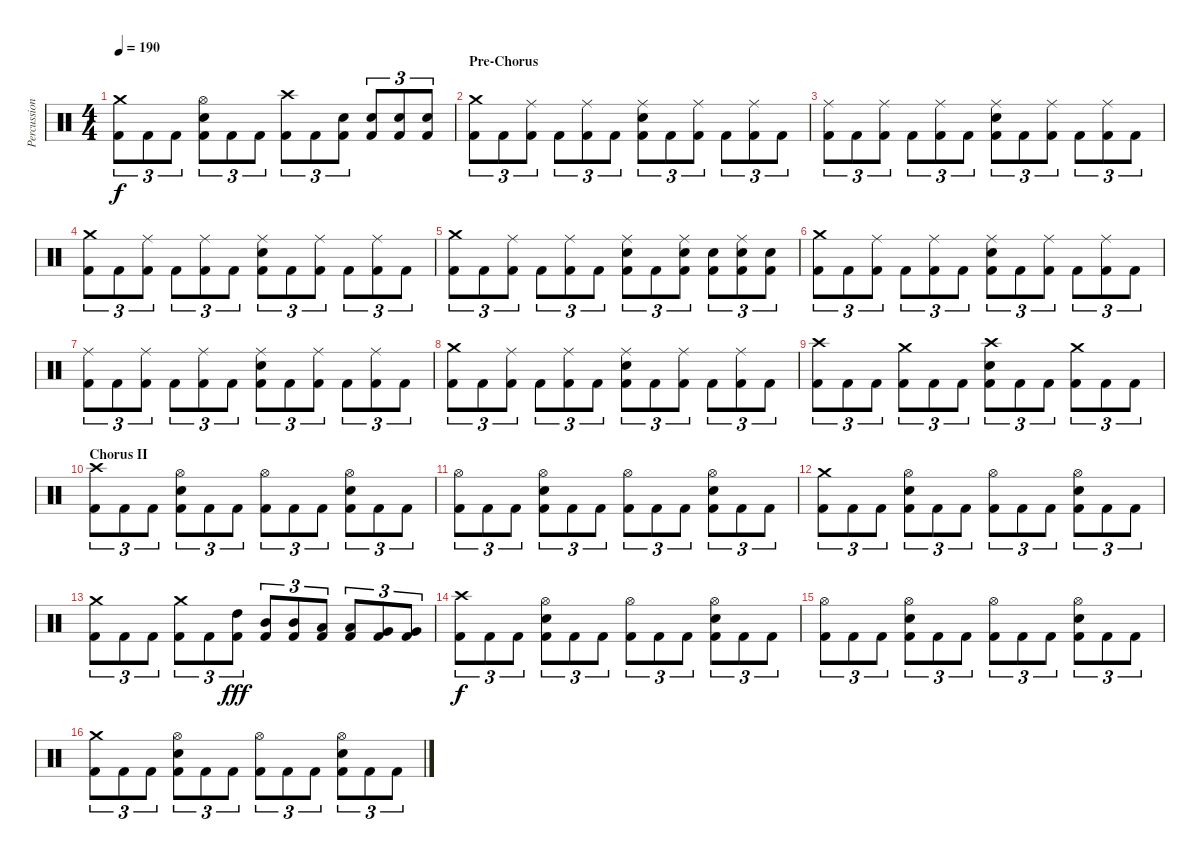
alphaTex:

\track ("Percussion" "Percussion") {instrument percussion}
\staff {score}
\articulation defaults
\ts (4 4)
\tempo 190
\clef neutral
\ks c
("Kick (hit) 2" "Crash medium (hit)").8{tu (3 2) dy f} "Kick (hit) 2".8{tu (3 2)} "Kick (hit) 2".8{tu (3 2)} ("Kick (hit) 2" "Electric Snare (hit)" "Hi-Hat (open)").8{tu (3 2)} "Kick (hit) 2".8{tu (3 2)} "Kick (hit) 2".8{tu (3 2)} ("Kick (hit) 2" "Crash high (hit)").8{tu (3 2)} "Kick (hit) 2".8{tu (3 2)} ("Kick (hit) 2" "Electric Snare (hit)").8{tu (3 2)} ("Kick (hit) 2" "Electric Snare (hit)").8{tu (3 2)} ("Kick (hit) 2" "Electric Snare (hit)").8{tu (3 2)} ("Kick (hit) 2" "Electric Snare (hit)").8{tu (3 2)} |
\section ("" "Pre-Chorus")
("Kick (hit) 2" "Crash medium (hit)").8{tu (3 2)} "Kick (hit) 2".8{tu (3 2)} ("Kick (hit) 2" "Ride (middle)").8{tu (3 2)} "Kick (hit) 2".8{tu (3 2)} ("Kick (hit) 2" "Ride (middle)").8{tu (3 2)} "Kick (hit) 2".8{tu (3 2)} ("Kick (hit) 2" "Electric Snare (hit)" "Ride (middle)").8{tu (3 2)} "Kick (hit) 2".8{tu (3 2)} ("Kick (hit) 2" "Ride (middle)").8{tu (3 2)} "Kick (hit) 2".8{tu (3 2)} ("Kick (hit) 2" "Ride (middle)").8{tu (3 2)} "Kick (hit) 2".8{tu (3 2)} |
("Kick (hit) 2" "Ride (middle)").8{tu (3 2)} "Kick (hit) 2".8{tu (3 2)} ("Kick (hit) 2" "Ride (middle)").8{tu (3 2)} "Kick (hit) 2".8{tu (3 2)} ("Kick (hit) 2" "Ride (middle)").8{tu (3 2)} "Kick (hit) 2".8{tu (3 2)} ("Kick (hit) 2" "Electric Snare (hit)" "Ride (middle)").8{tu (3 2)} "Kick (hit) 2".8{tu (3 2)} ("Kick (hit) 2" "Ride (middle)").8{tu (3 2)} "Kick (hit) 2".8{tu (3 2)} ("Kick (hit) 2" "Ride (middle)").8{tu (3 2)} "Kick (hit) 2".8{tu (3 2)} |
("Kick (hit) 2" "Crash medium (hit)").8{tu (3 2)} "Kick (hit) 2".8{tu (3 2)} ("Kick (hit) 2" "Ride (middle)").8{tu (3 2)} "Kick (hit) 2".8{tu (3 2)} ("Kick (hit) 2" "Ride (middle)").8{tu (3 2)} "Kick (hit) 2".8{tu (3 2)} ("Kick (hit) 2" "Electric Snare (hit)" "Ride (middle)").8{tu (3 2)} "Kick (hit) 2".8{tu (3 2)} ("Kick (hit) 2" "Ride (middle)").8{tu (3 2)} "Kick (hit) 2".8{tu (3 2)} ("Kick (hit) 2" "Ride (middle)").8{tu (3 2)} "Kick (hit) 2".8{tu (3 2)} |
("Kick (hit) 2" "Crash medium (hit)").8{tu (3 2)} "Kick (hit) 2".8{tu (3 2)} ("Kick (hit) 2" "Ride (middle)").8{tu (3 2)} "Kick (hit) 2".8{tu (3 2)} ("Kick (hit) 2" "Ride (middle)").8{tu (3 2)} "Kick (hit) 2".8{tu (3 2)} ("Kick (hit) 2" "Electric Snare (hit)" "Ride (middle)").8{tu (3 2)} "Kick (hit) 2".8{tu (3 2)} ("Kick (hit) 2" "Electric Snare (hit)" "Ride (middle)").8{tu (3 2)} ("Kick (hit) 2" "Electric Snare (hit)").8{tu (3 2)} ("Kick (hit) 2" "Electric Snare (hit)" "Ride (middle)").8{tu (3 2)} ("Kick (hit) 2" "Electric Snare (hit)").8{tu (3 2)} |
("Kick (hit) 2" "Crash medium (hit)").8{tu (3 2)} "Kick (hit) 2".8{tu (3 2)} ("Kick (hit) 2" "Ride (middle)").8{tu (3 2)} "Kick (hit) 2".8{tu (3 2)} ("Kick (hit) 2" "Ride (middle)").8{tu (3 2)} "Kick (hit) 2".8{tu (3 2)} ("Kick (hit) 2" "Electric Snare (hit)" "Ride (middle)").8{tu (3 2)} "Kick (hit) 2".8{tu (3 2)} ("Kick (hit) 2" "Ride (middle)").8{tu (3 2)} "Kick (hit) 2".8{tu (3 2)} ("Kick (hit) 2" "Ride (middle)").8{tu (3 2)} "Kick (hit) 2".8{tu (3 2)} |
("Kick (hit) 2" "Ride (middle)").8{tu (3 2)} "Kick (hit) 2".8{tu (3 2)} ("Kick (hit) 2" "Ride (middle)").8{tu (3 2)} "Kick (hit) 2".8{tu (3 2)} ("Kick (hit) 2" "Ride (middle)").8{tu (3 2)} "Kick (hit) 2".8{tu (3 2)} ("Kick (hit) 2" "Electric Snare (hit)" "Ride (middle)").8{tu (3 2)} "Kick (hit) 2".8{tu (3 2)} ("Kick (hit) 2" "Ride (middle)").8{tu (3 2)} "Kick (hit) 2".8{tu (3 2)} ("Kick (hit) 2" "Ride (middle)").8{tu (3 2)} "Kick (hit) 2".8{tu (3 2)} |
("Kick (hit) 2" "Crash medium (hit)").8{tu (3 2)} "Kick (hit) 2".8{tu (3 2)} ("Kick (hit) 2" "Ride (middle)").8{tu (3 2)} "Kick (hit) 2".8{tu (3 2)} ("Kick (hit) 2" "Ride (middle)").8{tu (3 2)} "Kick (hit) 2".8{tu (3 2)} ("Kick (hit) 2" "Electric Snare (hit)" "Ride (middle)").8{tu (3 2)} "Kick (hit) 2".8{tu (3 2)} ("Kick (hit) 2" "Ride (middle)").8{tu (3 2)} "Kick (hit) 2".8{tu (3 2)} ("Kick (hit) 2" "Ride (middle)").8{tu (3 2)} "Kick (hit) 2".8{tu (3 2)} |
("Kick (hit) 2" "Crash high (hit)").8{tu (3 2)} "Kick (hit) 2".8{tu (3 2)} "Kick (hit) 2".8{tu (3 2)} ("Kick (hit) 2" "Crash medium (hit)").8{tu (3 2)} "Kick (hit) 2".8{tu (3 2)} "Kick (hit) 2".8{tu (3 2)} ("Kick (hit) 2" "Electric Snare (hit)" "Crash high (hit)").8{tu (3 2)} "Kick (hit) 2".8{tu (3 2)} "Kick (hit) 2".8{tu (3 2)} ("Kick (hit) 2" "Crash medium (hit)").8{tu (3 2)} "Kick (hit) 2".8{tu (3 2)} "Kick (hit) 2".8{tu (3 2)} |
\section ("" "Chorus II")
("Kick (hit) 2" "Crash high (hit)").8{tu (3 2)} "Kick (hit) 2".8{tu (3 2)} "Kick (hit) 2".8{tu (3 2)} ("Kick (hit) 2" "Electric Snare (hit)" "Hi-Hat (open)").8{tu (3 2)} "Kick (hit) 2".8{tu (3 2)} "Kick (hit) 2".8{tu (3 2)} ("Kick (hit) 2" "Hi-Hat (open)").8{tu (3 2)} "Kick (hit) 2".8{tu (3 2)} "Kick (hit) 2".8{tu (3 2)} ("Kick (hit) 2" "Electric Snare (hit)" "Hi-Hat (open)").8{tu (3 2)} "Kick (hit) 2".8{tu (3 2)} "Kick (hit) 2".8{tu (3 2)} |
("Kick (hit) 2" "Hi-Hat (open)").8{tu (3 2)} "Kick (hit) 2".8{tu (3 2)} "Kick (hit) 2".8{tu (3 2)} ("Kick (hit) 2" "Electric Snare (hit)" "Hi-Hat (open)").8{tu (3 2)} "Kick (hit) 2".8{tu (3 2)} "Kick (hit) 2".8{tu (3 2)} ("Kick (hit) 2" "Hi-Hat (open)").8{tu (3 2)} "Kick (hit) 2".8{tu (3 2)} "Kick (hit) 2".8{tu (3 2)} ("Kick (hit) 2" "Electric Snare (hit)" "Hi-Hat (open)").8{tu (3 2)} "Kick (hit) 2".8{tu (3 2)} "Kick (hit) 2".8{tu (3 2)} |
("Kick (hit) 2" "Crash medium (hit)").8{tu (3 2)} "Kick (hit) 2".8{tu (3 2)} "Kick (hit) 2".8{tu (3 2)} ("Kick (hit) 2" "Electric Snare (hit)" "Hi-Hat (open)").8{tu (3 2)} "Kick (hit) 2".8{tu (3 2)} "Kick (hit) 2".8{tu (3 2)} ("Kick (hit) 2" "Hi-Hat (open)").8{tu (3 2)} "Kick (hit) 2".8{tu (3 2)} "Kick (hit) 2".8{tu (3 2)} ("Kick (hit) 2" "Electric Snare (hit)" "Hi-Hat (open)").8{tu (3 2)} "Kick (hit) 2".8{tu (3 2)} "Kick (hit) 2".8{tu (3 2)} |
("Kick (hit) 2" "Crash medium (hit)").8{tu (3 2)} "Kick (hit) 2".8{tu (3 2)} "Kick (hit) 2".8{tu (3 2)} ("Kick (hit) 2" "Crash medium (hit)").8{tu (3 2)} "Kick (hit) 2".8{tu (3 2)} ("Kick (hit) 2" "High Tom (hit)").8{tu (3 2) dy fff} ("Kick (hit) 2" "Mid Tom (hit)").8{tu (3 2)} ("Kick (hit) 2" "Mid Tom (hit)").8{tu (3 2)} ("Kick (hit) 2" "Low Tom (hit)").8{tu (3 2)} ("Kick (hit) 2" "Low Tom (hit)").8{tu (3 2)} ("Kick (hit) 2" "Very Low Tom (hit)").8{tu (3 2)} ("Kick (hit) 2" "Very Low Tom (hit)").8{tu (3 2)} |
("Kick (hit) 2" "Crash high (hit)").8{tu (3 2) dy f} "Kick (hit) 2".8{tu (3 2)} "Kick (hit) 2".8{tu (3 2)} ("Kick (hit) 2" "Electric Snare (hit)" "Hi-Hat (open)").8{tu (3 2)} "Kick (hit) 2".8{tu (3 2)} "Kick (hit) 2".8{tu (3 2)} ("Kick (hit) 2" "Hi-Hat (open)").8{tu (3 2)} "Kick (hit) 2".8{tu (3 2)} "Kick (hit) 2".8{tu (3 2)} ("Kick (hit) 2" "Electric Snare (hit)" "Hi-Hat (open)").8{tu (3 2)} "Kick (hit) 2".8{tu (3 2)} "Kick (hit) 2".8{tu (3 2)} |
("Kick (hit) 2" "Hi-Hat (open)").8{tu (3 2)} "Kick (hit) 2".8{tu (3 2)} "Kick (hit) 2".8{tu (3 2)} ("Kick (hit) 2" "Electric Snare (hit)" "Hi-Hat (open)").8{tu (3 2)} "Kick (hit) 2".8{tu (3 2)} "Kick (hit) 2".8{tu (3 2)} ("Kick (hit) 2" "Hi-Hat (open)").8{tu (3 2)} "Kick (hit) 2".8{tu (3 2)} "Kick (hit) 2".8{tu (3 2)} ("Kick (hit) 2" "Electric Snare (hit)" "Hi-Hat (open)").8{tu (3 2)} "Kick (hit) 2".8{tu (3 2)} "Kick (hit) 2".8{tu (3 2)} |
("Kick (hit) 2" "Crash medium (hit)").8{tu (3 2)} "Kick (hit) 2".8{tu (3 2)} "Kick (hit) 2".8{tu (3 2)} ("Kick (hit) 2" "Electric Snare (hit)" "Hi-Hat (open)").8{tu (3 2)} "Kick (hit) 2".8{tu (3 2)} "Kick (hit) 2".8{tu (3 2)} ("Kick (hit) 2" "Hi-Hat (open)").8{tu (3 2)} "Kick (hit) 2".8{tu (3 2)} "Kick (hit) 2".8{tu (3 2)} ("Kick (hit) 2" "Electric Snare (hit)" "Hi-Hat (open)").8{tu (3 2)} "Kick (hit) 2".8{tu (3 2)} "Kick (hit) 2".8{tu (3 2)}
